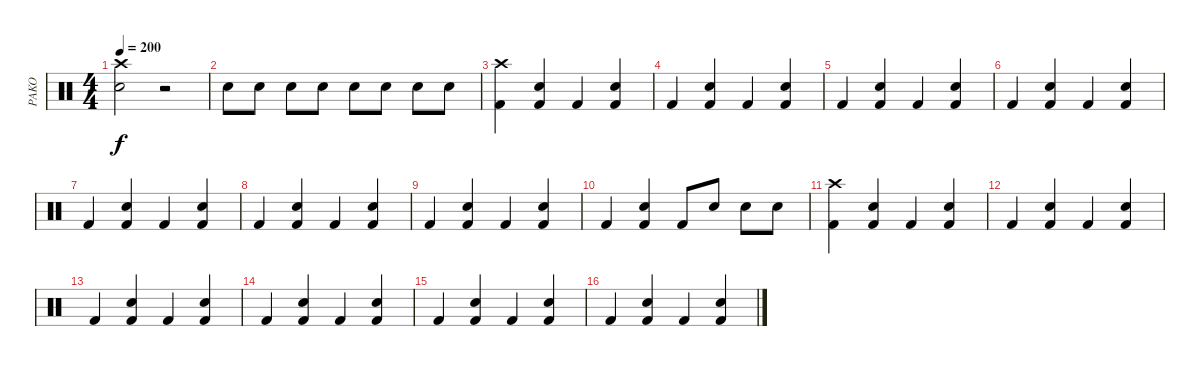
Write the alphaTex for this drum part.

\track ("PAKO" "PAKO") {instrument percussion}
\staff {score}
\articulation defaults
\ts (4 4)
\tempo 200
\clef neutral
\ks c
("Crash high (hit)" "Electric Snare (hit)").2{dy f} r.2 |
"Snare (hit) 2".8 "Snare (hit) 2".8 "Snare (hit) 2".8 "Snare (hit) 2".8 "Snare (hit) 2".8 "Snare (hit) 2".8 "Snare (hit) 2".8 "Snare (hit) 2".8 |
("Kick (hit) 2" "Crash high (hit)").4 ("Electric Snare (hit)" "Kick (hit) 2").4 "Kick (hit) 2".4 ("Electric Snare (hit)" "Kick (hit) 2").4 |
"Kick (hit) 2".4 ("Electric Snare (hit)" "Kick (hit) 2").4 "Kick (hit) 2".4 ("Electric Snare (hit)" "Kick (hit) 2").4 |
"Kick (hit) 2".4 ("Electric Snare (hit)" "Kick (hit) 2").4 "Kick (hit) 2".4 ("Electric Snare (hit)" "Kick (hit) 2").4 |
"Kick (hit) 2".4 ("Electric Snare (hit)" "Kick (hit) 2").4 "Kick (hit) 2".4 ("Electric Snare (hit)" "Kick (hit) 2").4 |
"Kick (hit) 2".4 ("Electric Snare (hit)" "Kick (hit) 2").4 "Kick (hit) 2".4 ("Electric Snare (hit)" "Kick (hit) 2").4 |
"Kick (hit) 2".4 ("Electric Snare (hit)" "Kick (hit) 2").4 "Kick (hit) 2".4 ("Electric Snare (hit)" "Kick (hit) 2").4 |
"Kick (hit) 2".4 ("Electric Snare (hit)" "Kick (hit) 2").4 "Kick (hit) 2".4 ("Electric Snare (hit)" "Kick (hit) 2").4 |
"Kick (hit) 2".4 ("Electric Snare (hit)" "Kick (hit) 2").4 "Kick (hit) 2".8 "Electric Snare (hit)".8 "Electric Snare (hit)".8 "Electric Snare (hit)".8 |
("Kick (hit) 2" "Crash high (hit)").4 ("Electric Snare (hit)" "Kick (hit) 2").4 "Kick (hit) 2".4 ("Electric Snare (hit)" "Kick (hit) 2").4 |
"Kick (hit) 2".4 ("Electric Snare (hit)" "Kick (hit) 2").4 "Kick (hit) 2".4 ("Electric Snare (hit)" "Kick (hit) 2").4 |
"Kick (hit) 2".4 ("Electric Snare (hit)" "Kick (hit) 2").4 "Kick (hit) 2".4 ("Electric Snare (hit)" "Kick (hit) 2").4 |
"Kick (hit) 2".4 ("Electric Snare (hit)" "Kick (hit) 2").4 "Kick (hit) 2".4 ("Electric Snare (hit)" "Kick (hit) 2").4 |
"Kick (hit) 2".4 ("Electric Snare (hit)" "Kick (hit) 2").4 "Kick (hit) 2".4 ("Electric Snare (hit)" "Kick (hit) 2").4 |
"Kick (hit) 2".4 ("Electric Snare (hit)" "Kick (hit) 2").4 "Kick (hit) 2".4 ("Electric Snare (hit)" "Kick (hit) 2").4
